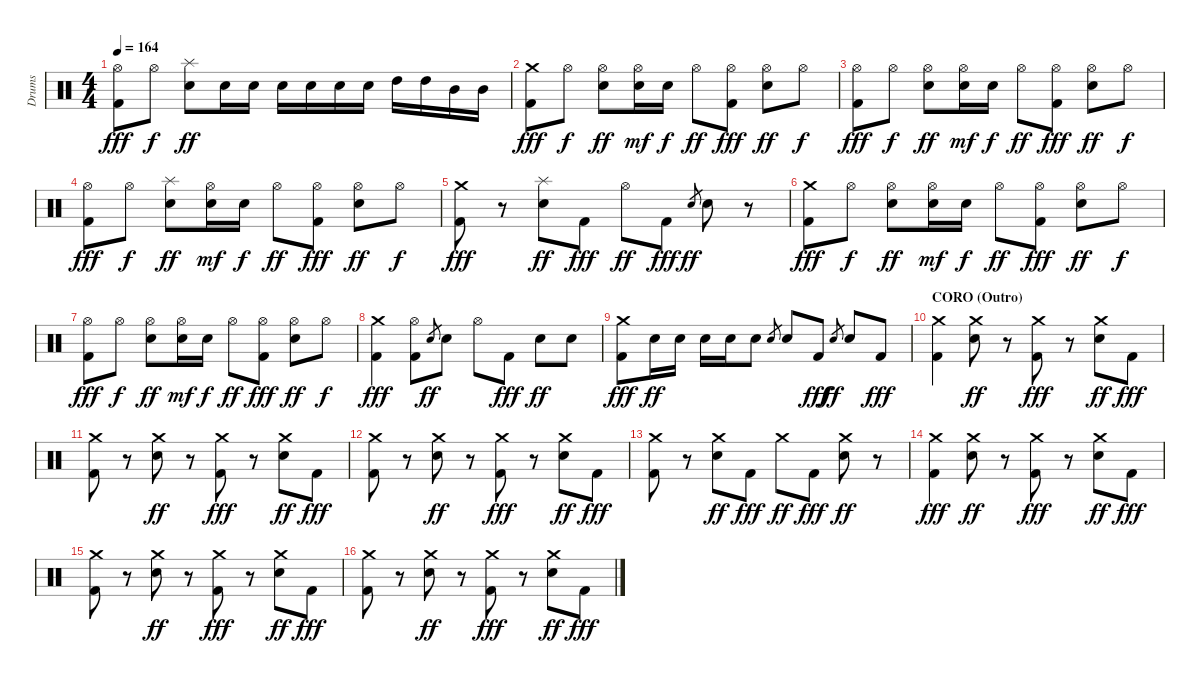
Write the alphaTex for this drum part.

\track ("Drums" "Drums") {instrument percussion}
\staff {score}
\articulation defaults
\ts (4 4)
\tempo 164
\clef neutral
\ks c
("Hi-Hat (open)" "Kick (hit) 2").8{dy fff} "Hi-Hat (open)".8{dy f} ("Splash (hit)" "Snare (hit) 2").8{dy ff} "Snare (hit) 2".16 "Snare (hit) 2".16 "Snare (hit) 2".16 "Snare (hit) 2".16 "Snare (hit) 2".16 "Snare (hit) 2".16 "High Tom (hit)".16 "High Tom (hit)".16 "Mid Tom (hit)".16 "Mid Tom (hit)".16 |
("Crash medium (hit)" "Kick (hit) 2").8{dy fff} "Hi-Hat (open)".8{dy f} ("Hi-Hat (open)" "Snare (hit) 2").8{dy ff} ("Hi-Hat (open)" "Snare (hit) 2").16{dy mf} "Snare (hit) 2".16{dy f} "Hi-Hat (open)".8{dy ff} ("Hi-Hat (open)" "Kick (hit) 2").8{dy fff} ("Hi-Hat (open)" "Snare (hit) 2").8{dy ff} "Hi-Hat (open)".8{dy f} |
("Hi-Hat (open)" "Kick (hit) 2").8{dy fff} "Hi-Hat (open)".8{dy f} ("Hi-Hat (open)" "Snare (hit) 2").8{dy ff} ("Hi-Hat (open)" "Snare (hit) 2").16{dy mf} "Snare (hit) 2".16{dy f} "Hi-Hat (open)".8{dy ff} ("Hi-Hat (open)" "Kick (hit) 2").8{dy fff} ("Hi-Hat (open)" "Snare (hit) 2").8{dy ff} "Hi-Hat (open)".8{dy f} |
("Hi-Hat (open)" "Kick (hit) 2").8{dy fff} "Hi-Hat (open)".8{dy f} ("Splash (hit)" "Snare (hit) 2").8{dy ff} ("Hi-Hat (open)" "Snare (hit) 2").16{dy mf} "Snare (hit) 2".16{dy f} "Hi-Hat (open)".8{dy ff} ("Hi-Hat (open)" "Kick (hit) 2").8{dy fff} ("Hi-Hat (open)" "Snare (hit) 2").8{dy ff} "Hi-Hat (open)".8{dy f} |
("Crash medium (hit)" "Kick (hit) 2").8{dy fff} r.8 ("Splash (hit)" "Snare (hit) 2").8{dy ff} "Kick (hit) 2".8{dy fff} "Hi-Hat (open)".8{dy ff} "Kick (hit) 2".8{dy fff} "Snare (hit) 2".8{gr dy ff} "Snare (hit) 2".8 r.8 |
("Crash medium (hit)" "Kick (hit) 2").8{dy fff} "Hi-Hat (open)".8{dy f} ("Hi-Hat (open)" "Snare (hit) 2").8{dy ff} ("Hi-Hat (open)" "Snare (hit) 2").16{dy mf} "Snare (hit) 2".16{dy f} "Hi-Hat (open)".8{dy ff} ("Hi-Hat (open)" "Kick (hit) 2").8{dy fff} ("Hi-Hat (open)" "Snare (hit) 2").8{dy ff} "Hi-Hat (open)".8{dy f} |
("Hi-Hat (open)" "Kick (hit) 2").8{dy fff} "Hi-Hat (open)".8{dy f} ("Hi-Hat (open)" "Snare (hit) 2").8{dy ff} ("Hi-Hat (open)" "Snare (hit) 2").16{dy mf} "Snare (hit) 2".16{dy f} "Hi-Hat (open)".8{dy ff} ("Hi-Hat (open)" "Kick (hit) 2").8{dy fff} ("Hi-Hat (open)" "Snare (hit) 2").8{dy ff} "Hi-Hat (open)".8{dy f} |
("Crash medium (hit)" "Kick (hit) 2").4{dy fff} ("Hi-Hat (open)" "Kick (hit) 2").8 "Snare (hit) 2".8{gr dy ff} "Snare (hit) 2".8 "Hi-Hat (open)".8 "Kick (hit) 2".8{dy fff} "Snare (hit) 2".8{dy ff} "Snare (hit) 2".8 |
("Crash medium (hit)" "Kick (hit) 2").8{dy fff} "Snare (hit) 2".16{dy ff} "Snare (hit) 2".16 "Snare (hit) 2".16 "Snare (hit) 2".16 "Snare (hit) 2".8 "Snare (hit) 2".8{gr} "Snare (hit) 2".8 "Kick (hit) 2".8{dy fff} "Snare (hit) 2".8{gr dy ff} "Snare (hit) 2".8 "Kick (hit) 2".8{dy fff} |
\section ("" "CORO (Outro)")
("Crash medium (hit)" "Kick (hit) 2").4 ("Crash medium (hit)" "Snare (hit) 2").8{dy ff} r.8 ("Crash medium (hit)" "Kick (hit) 2").8{dy fff} r.8 ("Crash medium (hit)" "Snare (hit) 2").8{dy ff} "Kick (hit) 2".8{dy fff} |
("Crash medium (hit)" "Kick (hit) 2").8 r.8 ("Crash medium (hit)" "Snare (hit) 2").8{dy ff} r.8 ("Crash medium (hit)" "Kick (hit) 2").8{dy fff} r.8 ("Crash medium (hit)" "Snare (hit) 2").8{dy ff} "Kick (hit) 2".8{dy fff} |
("Crash medium (hit)" "Kick (hit) 2").8 r.8 ("Crash medium (hit)" "Snare (hit) 2").8{dy ff} r.8 ("Crash medium (hit)" "Kick (hit) 2").8{dy fff} r.8 ("Crash medium (hit)" "Snare (hit) 2").8{dy ff} "Kick (hit) 2".8{dy fff} |
("Crash medium (hit)" "Kick (hit) 2").8 r.8 ("Crash medium (hit)" "Snare (hit) 2").8{dy ff} "Kick (hit) 2".8{dy fff} "Crash medium (hit)".8{dy ff} "Kick (hit) 2".8{dy fff} ("Crash medium (hit)" "Snare (hit) 2").8{dy ff} r.8 |
("Crash medium (hit)" "Kick (hit) 2").4{dy fff} ("Crash medium (hit)" "Snare (hit) 2").8{dy ff} r.8 ("Crash medium (hit)" "Kick (hit) 2").8{dy fff} r.8 ("Crash medium (hit)" "Snare (hit) 2").8{dy ff} "Kick (hit) 2".8{dy fff} |
("Crash medium (hit)" "Kick (hit) 2").8 r.8 ("Crash medium (hit)" "Snare (hit) 2").8{dy ff} r.8 ("Crash medium (hit)" "Kick (hit) 2").8{dy fff} r.8 ("Crash medium (hit)" "Snare (hit) 2").8{dy ff} "Kick (hit) 2".8{dy fff} |
("Crash medium (hit)" "Kick (hit) 2").8 r.8 ("Crash medium (hit)" "Snare (hit) 2").8{dy ff} r.8 ("Crash medium (hit)" "Kick (hit) 2").8{dy fff} r.8 ("Crash medium (hit)" "Snare (hit) 2").8{dy ff} "Kick (hit) 2".8{dy fff}
